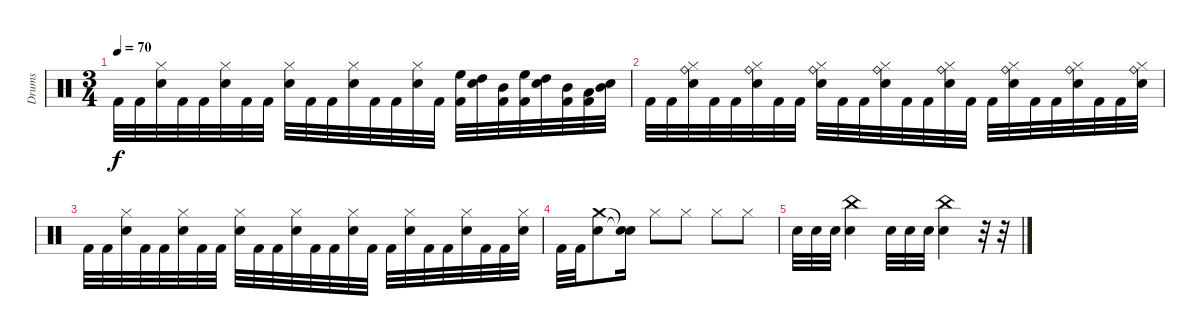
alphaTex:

\track ("Drums" "Drums") {instrument percussion}
\staff {score}
\articulation defaults
\ts (3 4)
\tempo 70
\clef neutral
\ks c "Kick (hit) 2".32{dy f} "Kick (hit) 2".32
("Hi-Hat (closed)" "Electric Snare (hit)").32 "Kick (hit) 2".32 "Kick (hit) 2".32 ("Hi-Hat (closed)" "Electric Snare (hit)").32 "Kick (hit) 2".32 "Kick (hit) 2".32 ("Hi-Hat (closed)" "Electric Snare (hit)").32 "Kick (hit) 2".32 "Kick (hit) 2".32 ("Hi-Hat (closed)" "Electric Snare (hit)").32 "Kick (hit) 2".32 "Kick (hit) 2".32 ("Hi-Hat (closed)" "Electric Snare (hit)").32 "Kick (hit) 2".32 ("High Floor Tom (hit)" "Kick (hit) 2").32 ("Electric Snare (hit)" "High Tom (hit)").32 ("Mid Tom (hit)" "Kick (hit) 2").32 ("High Floor Tom (hit)" "Kick (hit) 2").32 ("Electric Snare (hit)" "High Tom (hit)").32 ("Mid Tom (hit)" "Kick (hit) 2").32 ("Low Tom (hit)" "Kick (hit) 2").32 ("Electric Snare (hit)" "Mid Tom (hit)").32 |
"Kick (hit) 2".32 "Kick (hit) 2".32 ("Hi-Hat (closed)" "Electric Snare (hit)" "Ride (bell)").32 "Kick (hit) 2".32 "Kick (hit) 2".32 ("Hi-Hat (closed)" "Electric Snare (hit)" "Ride (bell)").32 "Kick (hit) 2".32 "Kick (hit) 2".32 ("Hi-Hat (closed)" "Electric Snare (hit)" "Ride (bell)").32 "Kick (hit) 2".32 "Kick (hit) 2".32 ("Hi-Hat (closed)" "Electric Snare (hit)" "Ride (bell)").32 "Kick (hit) 2".32 "Kick (hit) 2".32 ("Hi-Hat (closed)" "Electric Snare (hit)" "Ride (bell)").32 "Kick (hit) 2".32 "Kick (hit) 2".32 ("Hi-Hat (closed)" "Electric Snare (hit)" "Ride (bell)").32 "Kick (hit) 2".32 "Kick (hit) 2".32 ("Hi-Hat (closed)" "Electric Snare (hit)" "Ride (bell)").32 "Kick (hit) 2".32 "Kick (hit) 2".32 ("Hi-Hat (closed)" "Electric Snare (hit)" "Ride (bell)").32 |
"Kick (hit) 2".32 "Kick (hit) 2".32 ("Hi-Hat (closed)" "Electric Snare (hit)").32 "Kick (hit) 2".32 "Kick (hit) 2".32 ("Hi-Hat (closed)" "Electric Snare (hit)").32 "Kick (hit) 2".32 "Kick (hit) 2".32 ("Hi-Hat (closed)" "Electric Snare (hit)").32 "Kick (hit) 2".32 "Kick (hit) 2".32 ("Hi-Hat (closed)" "Electric Snare (hit)").32 "Kick (hit) 2".32 "Kick (hit) 2".32 ("Hi-Hat (closed)" "Electric Snare (hit)").32 "Kick (hit) 2".32 "Kick (hit) 2".32 ("Hi-Hat (closed)" "Electric Snare (hit)").32 "Kick (hit) 2".32 "Kick (hit) 2".32 ("Hi-Hat (closed)" "Electric Snare (hit)").32 "Kick (hit) 2".32 "Kick (hit) 2".32 ("Hi-Hat (closed)" "Electric Snare (hit)").32 |
"Kick (hit) 2".32 "Kick (hit) 2".32 ("Crash medium (hit)" "Electric Snare (hit)").8 ("Snare (hit)"{t} "Snare (hit)"{t}).16 "Hi-Hat (closed)".8 "Hi-Hat (closed)".8 "Hi-Hat (closed)".8 "Hi-Hat (closed)".8 |
"Electric Snare (hit)".32 "Electric Snare (hit)".32 "Electric Snare (hit)".32 ("China (hit)" "Electric Snare (hit)").4 "Electric Snare (hit)".32 "Electric Snare (hit)".32 "Electric Snare (hit)".32 ("China (hit)" "Electric Snare (hit)").4 r.32 r.32
